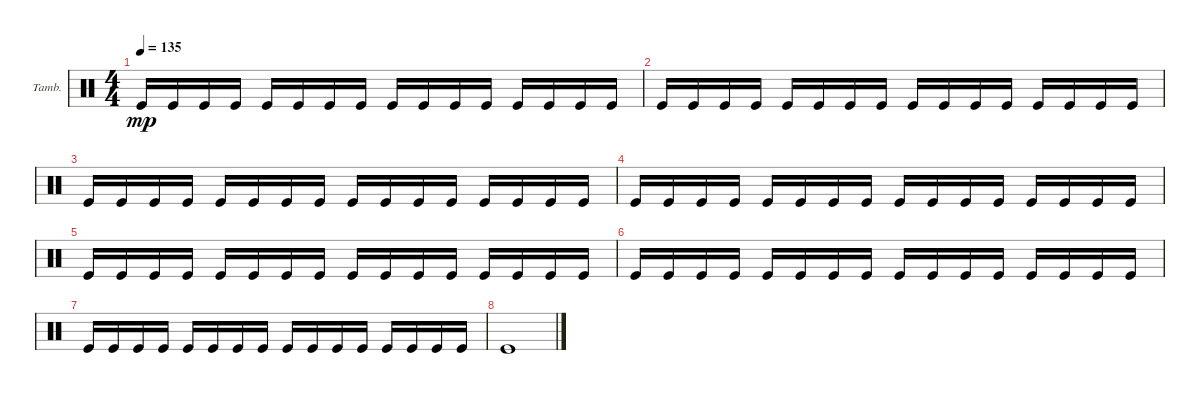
\defaultSystemsLayout 4
\bracketExtendMode groupsimilarinstruments
\firstSystemTrackNameOrientation horizontal
\otherSystemsTrackNameOrientation horizontal
\track ("Tambourine" "Tamb.") {instrument percussion}
\staff {score}
\articulation defaults
\ts (4 4)
\tempo 135
\clef neutral
\ks c "Kick (hit)".16{dy mp} "Kick (hit)".16 "Kick (hit)".16 "Kick (hit)".16 "Kick (hit)".16 "Kick (hit)".16 "Kick (hit)".16 "Kick (hit)".16 "Kick (hit)".16 "Kick (hit)".16 "Kick (hit)".16 "Kick (hit)".16 "Kick (hit)".16 "Kick (hit)".16 "Kick (hit)".16 "Kick (hit)".16
|
"Kick (hit)".16 "Kick (hit)".16 "Kick (hit)".16 "Kick (hit)".16 "Kick (hit)".16 "Kick (hit)".16 "Kick (hit)".16 "Kick (hit)".16 "Kick (hit)".16 "Kick (hit)".16 "Kick (hit)".16 "Kick (hit)".16 "Kick (hit)".16 "Kick (hit)".16 "Kick (hit)".16 "Kick (hit)".16 |
"Kick (hit)".16 "Kick (hit)".16 "Kick (hit)".16 "Kick (hit)".16 "Kick (hit)".16 "Kick (hit)".16 "Kick (hit)".16 "Kick (hit)".16 "Kick (hit)".16 "Kick (hit)".16 "Kick (hit)".16 "Kick (hit)".16 "Kick (hit)".16 "Kick (hit)".16 "Kick (hit)".16 "Kick (hit)".16 |
"Kick (hit)".16 "Kick (hit)".16 "Kick (hit)".16 "Kick (hit)".16 "Kick (hit)".16 "Kick (hit)".16 "Kick (hit)".16 "Kick (hit)".16 "Kick (hit)".16 "Kick (hit)".16 "Kick (hit)".16 "Kick (hit)".16 "Kick (hit)".16 "Kick (hit)".16 "Kick (hit)".16 "Kick (hit)".16 |
"Kick (hit)".16 "Kick (hit)".16 "Kick (hit)".16 "Kick (hit)".16 "Kick (hit)".16 "Kick (hit)".16 "Kick (hit)".16 "Kick (hit)".16 "Kick (hit)".16 "Kick (hit)".16 "Kick (hit)".16 "Kick (hit)".16 "Kick (hit)".16 "Kick (hit)".16 "Kick (hit)".16 "Kick (hit)".16 |
"Kick (hit)".16 "Kick (hit)".16 "Kick (hit)".16 "Kick (hit)".16 "Kick (hit)".16 "Kick (hit)".16 "Kick (hit)".16 "Kick (hit)".16 "Kick (hit)".16 "Kick (hit)".16 "Kick (hit)".16 "Kick (hit)".16 "Kick (hit)".16 "Kick (hit)".16 "Kick (hit)".16 "Kick (hit)".16 |
"Kick (hit)".16 "Kick (hit)".16 "Kick (hit)".16 "Kick (hit)".16 "Kick (hit)".16 "Kick (hit)".16 "Kick (hit)".16 "Kick (hit)".16 "Kick (hit)".16 "Kick (hit)".16 "Kick (hit)".16 "Kick (hit)".16 "Kick (hit)".16 "Kick (hit)".16 "Kick (hit)".16 "Kick (hit)".16 |
"Kick (hit)".1
